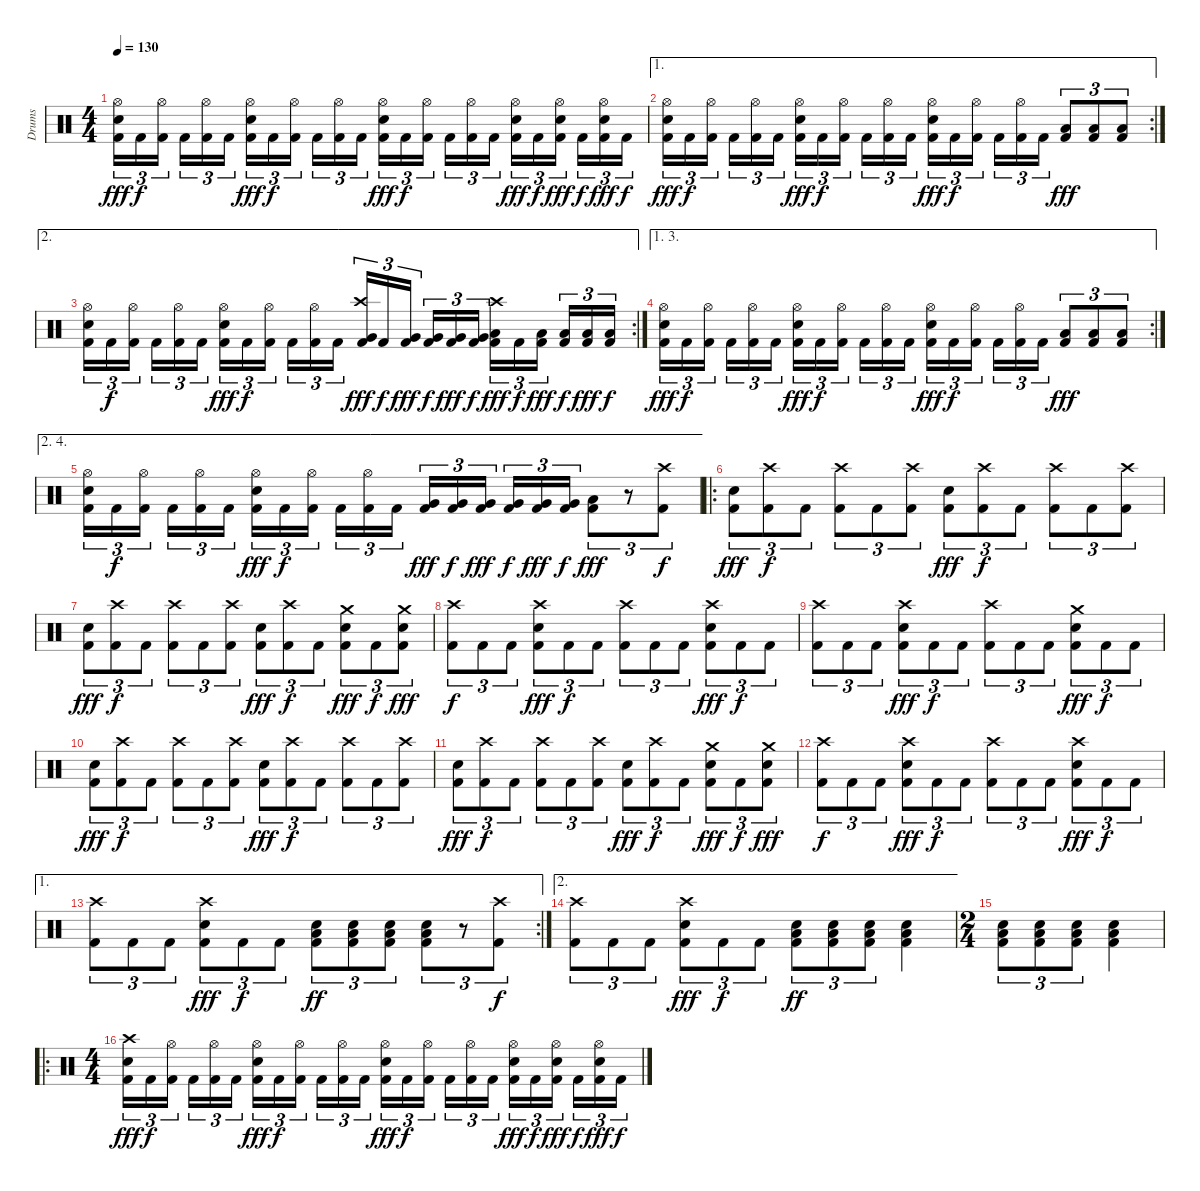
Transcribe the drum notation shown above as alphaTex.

\track ("Drums" "Drums") {instrument percussion}
\staff {score}
\articulation defaults
\ts (4 4)
\tempo 130
\clef neutral
\ks c
("Hi-Hat (open)" "Snare (hit) 2" "Kick (hit) 2").16{tu (3 2) dy fff} "Kick (hit) 2".16{tu (3 2) dy f} ("Hi-Hat (open)" "Kick (hit) 2").16{tu (3 2)} "Kick (hit) 2".16{tu (3 2)} ("Hi-Hat (open)" "Kick (hit) 2").16{tu (3 2)} "Kick (hit) 2".16{tu (3 2)} ("Hi-Hat (open)" "Snare (hit) 2" "Kick (hit) 2").16{tu (3 2) dy fff} "Kick (hit) 2".16{tu (3 2) dy f} ("Hi-Hat (open)" "Kick (hit) 2").16{tu (3 2)} "Kick (hit) 2".16{tu (3 2)} ("Hi-Hat (open)" "Kick (hit) 2").16{tu (3 2)} "Kick (hit) 2".16{tu (3 2)} ("Hi-Hat (open)" "Snare (hit) 2" "Kick (hit) 2").16{tu (3 2) dy fff} "Kick (hit) 2".16{tu (3 2) dy f} ("Hi-Hat (open)" "Kick (hit) 2").16{tu (3 2)} "Kick (hit) 2".16{tu (3 2)} ("Hi-Hat (open)" "Kick (hit) 2").16{tu (3 2)} "Kick (hit) 2".16{tu (3 2)} ("Hi-Hat (open)" "Snare (hit) 2" "Kick (hit) 2").16{tu (3 2) dy fff} "Kick (hit) 2".16{tu (3 2) dy f} ("Hi-Hat (open)" "Snare (hit) 2" "Kick (hit) 2").16{tu (3 2) dy fff} "Kick (hit) 2".16{tu (3 2) dy f} ("Hi-Hat (open)" "Snare (hit) 2" "Kick (hit) 2").16{tu (3 2) dy fff} "Kick (hit) 2".16{tu (3 2) dy f} |
\ae 1
\rc 2
("Hi-Hat (open)" "Snare (hit) 2" "Kick (hit) 2").16{tu (3 2) dy fff} "Kick (hit) 2".16{tu (3 2) dy f} ("Hi-Hat (open)" "Kick (hit) 2").16{tu (3 2)} "Kick (hit) 2".16{tu (3 2)} ("Hi-Hat (open)" "Kick (hit) 2").16{tu (3 2)} "Kick (hit) 2".16{tu (3 2)} ("Hi-Hat (open)" "Snare (hit) 2" "Kick (hit) 2").16{tu (3 2) dy fff} "Kick (hit) 2".16{tu (3 2) dy f} ("Hi-Hat (open)" "Kick (hit) 2").16{tu (3 2)} "Kick (hit) 2".16{tu (3 2)} ("Hi-Hat (open)" "Kick (hit) 2").16{tu (3 2)} "Kick (hit) 2".16{tu (3 2)} ("Hi-Hat (open)" "Snare (hit) 2" "Kick (hit) 2").16{tu (3 2) dy fff} "Kick (hit) 2".16{tu (3 2) dy f} ("Hi-Hat (open)" "Kick (hit) 2").16{tu (3 2)} "Kick (hit) 2".16{tu (3 2)} ("Hi-Hat (open)" "Kick (hit) 2").16{tu (3 2)} "Kick (hit) 2".16{tu (3 2)} ("Low Floor Tom (hit)" "Kick (hit) 2").8{tu (3 2) dy fff} ("Low Floor Tom (hit)" "Kick (hit) 2").8{tu (3 2)} ("Low Floor Tom (hit)" "Kick (hit) 2").8{tu (3 2)} |
\ae 2
\rc 2
("Hi-Hat (open)" "Snare (hit) 2" "Kick (hit) 2").16{tu (3 2)} "Kick (hit) 2".16{tu (3 2) dy f} ("Hi-Hat (open)" "Kick (hit) 2").16{tu (3 2)} "Kick (hit) 2".16{tu (3 2)} ("Hi-Hat (open)" "Kick (hit) 2").16{tu (3 2)} "Kick (hit) 2".16{tu (3 2)} ("Hi-Hat (open)" "Snare (hit) 2" "Kick (hit) 2").16{tu (3 2) dy fff} "Kick (hit) 2".16{tu (3 2) dy f} ("Hi-Hat (open)" "Kick (hit) 2").16{tu (3 2)} "Kick (hit) 2".16{tu (3 2)} ("Hi-Hat (open)" "Kick (hit) 2").16{tu (3 2)} "Kick (hit) 2".16{tu (3 2)} ("Crash high (hit)" "Very Low Tom (hit)" "Kick (hit) 2").16{tu (3 2) dy fff} "Kick (hit) 2".16{tu (3 2) dy f} ("Very Low Tom (hit)" "Kick (hit) 2").16{tu (3 2) dy fff} ("Very Low Tom (hit)" "Kick (hit) 2").16{tu (3 2) dy f} ("Very Low Tom (hit)" "Kick (hit) 2").16{tu (3 2) dy fff} ("Very Low Tom (hit)" "Kick (hit) 2").16{tu (3 2) dy f} ("Crash high (hit)" "Low Floor Tom (hit)" "Kick (hit) 2").16{tu (3 2) dy fff} "Kick (hit) 2".16{tu (3 2) dy f} ("Low Floor Tom (hit)" "Kick (hit) 2").16{tu (3 2) dy fff} ("Low Floor Tom (hit)" "Kick (hit) 2").16{tu (3 2) dy f} ("Low Floor Tom (hit)" "Kick (hit) 2").16{tu (3 2) dy fff} ("Low Floor Tom (hit)" "Kick (hit) 2").16{tu (3 2) dy f} |
\ae (1 3)
\rc 2
("Hi-Hat (open)" "Snare (hit) 2" "Kick (hit) 2").16{tu (3 2) dy fff} "Kick (hit) 2".16{tu (3 2) dy f} ("Hi-Hat (open)" "Kick (hit) 2").16{tu (3 2)} "Kick (hit) 2".16{tu (3 2)} ("Hi-Hat (open)" "Kick (hit) 2").16{tu (3 2)} "Kick (hit) 2".16{tu (3 2)} ("Hi-Hat (open)" "Snare (hit) 2" "Kick (hit) 2").16{tu (3 2) dy fff} "Kick (hit) 2".16{tu (3 2) dy f} ("Hi-Hat (open)" "Kick (hit) 2").16{tu (3 2)} "Kick (hit) 2".16{tu (3 2)} ("Hi-Hat (open)" "Kick (hit) 2").16{tu (3 2)} "Kick (hit) 2".16{tu (3 2)} ("Hi-Hat (open)" "Snare (hit) 2" "Kick (hit) 2").16{tu (3 2) dy fff} "Kick (hit) 2".16{tu (3 2) dy f} ("Hi-Hat (open)" "Kick (hit) 2").16{tu (3 2)} "Kick (hit) 2".16{tu (3 2)} ("Hi-Hat (open)" "Kick (hit) 2").16{tu (3 2)} "Kick (hit) 2".16{tu (3 2)} ("Low Floor Tom (hit)" "Kick (hit) 2").8{tu (3 2) dy fff} ("Low Floor Tom (hit)" "Kick (hit) 2").8{tu (3 2)} ("Low Floor Tom (hit)" "Kick (hit) 2").8{tu (3 2)} |
\ae (2 4)
("Hi-Hat (open)" "Snare (hit) 2" "Kick (hit) 2").16{tu (3 2)} "Kick (hit) 2".16{tu (3 2) dy f} ("Hi-Hat (open)" "Kick (hit) 2").16{tu (3 2)} "Kick (hit) 2".16{tu (3 2)} ("Hi-Hat (open)" "Kick (hit) 2").16{tu (3 2)} "Kick (hit) 2".16{tu (3 2)} ("Hi-Hat (open)" "Snare (hit) 2" "Kick (hit) 2").16{tu (3 2) dy fff} "Kick (hit) 2".16{tu (3 2) dy f} ("Hi-Hat (open)" "Kick (hit) 2").16{tu (3 2)} "Kick (hit) 2".16{tu (3 2)} ("Hi-Hat (open)" "Kick (hit) 2").16{tu (3 2)} "Kick (hit) 2".16{tu (3 2)} ("Very Low Tom (hit)" "Kick (hit) 2").16{tu (3 2) dy fff} ("Very Low Tom (hit)" "Kick (hit) 2").16{tu (3 2) dy f} ("Very Low Tom (hit)" "Kick (hit) 2").16{tu (3 2) dy fff} ("Very Low Tom (hit)" "Kick (hit) 2").16{tu (3 2) dy f} ("Very Low Tom (hit)" "Kick (hit) 2").16{tu (3 2) dy fff} ("Very Low Tom (hit)" "Kick (hit) 2").16{tu (3 2) dy f} ("Low Floor Tom (hit)" "Kick (hit) 2").8{tu (3 2) dy fff} r.8{tu (3 2)} ("Crash high (hit)" "Kick (hit) 2").8{tu (3 2) dy f} |
\ro
("Snare (hit) 2" "Kick (hit) 2").8{tu (3 2) dy fff} ("Crash high (hit)" "Kick (hit) 2").8{tu (3 2) dy f} "Kick (hit) 2".8{tu (3 2)} ("Crash high (hit)" "Kick (hit) 2").8{tu (3 2)} "Kick (hit) 2".8{tu (3 2)} ("Crash high (hit)" "Kick (hit) 2").8{tu (3 2)} ("Snare (hit) 2" "Kick (hit) 2").8{tu (3 2) dy fff} ("Crash high (hit)" "Kick (hit) 2").8{tu (3 2) dy f} "Kick (hit) 2".8{tu (3 2)} ("Crash high (hit)" "Kick (hit) 2").8{tu (3 2)} "Kick (hit) 2".8{tu (3 2)} ("Crash high (hit)" "Kick (hit) 2").8{tu (3 2)} |
("Snare (hit) 2" "Kick (hit) 2").8{tu (3 2) dy fff} ("Crash high (hit)" "Kick (hit) 2").8{tu (3 2) dy f} "Kick (hit) 2".8{tu (3 2)} ("Crash high (hit)" "Kick (hit) 2").8{tu (3 2)} "Kick (hit) 2".8{tu (3 2)} ("Crash high (hit)" "Kick (hit) 2").8{tu (3 2)} ("Snare (hit) 2" "Kick (hit) 2").8{tu (3 2) dy fff} ("Crash high (hit)" "Kick (hit) 2").8{tu (3 2) dy f} "Kick (hit) 2".8{tu (3 2)} ("Crash medium (hit)" "Snare (hit) 2" "Kick (hit) 2").8{tu (3 2) dy fff} "Kick (hit) 2".8{tu (3 2) dy f} ("Crash medium (hit)" "Snare (hit) 2" "Kick (hit) 2").8{tu (3 2) dy fff} |
("Crash high (hit)" "Kick (hit) 2").8{tu (3 2) dy f} "Kick (hit) 2".8{tu (3 2)} "Kick (hit) 2".8{tu (3 2)} ("Crash high (hit)" "Snare (hit) 2" "Kick (hit) 2").8{tu (3 2) dy fff} "Kick (hit) 2".8{tu (3 2) dy f} "Kick (hit) 2".8{tu (3 2)} ("Crash high (hit)" "Kick (hit) 2").8{tu (3 2)} "Kick (hit) 2".8{tu (3 2)} "Kick (hit) 2".8{tu (3 2)} ("Crash high (hit)" "Snare (hit) 2" "Kick (hit) 2").8{tu (3 2) dy fff} "Kick (hit) 2".8{tu (3 2) dy f} "Kick (hit) 2".8{tu (3 2)} |
("Crash high (hit)" "Kick (hit) 2").8{tu (3 2)} "Kick (hit) 2".8{tu (3 2)} "Kick (hit) 2".8{tu (3 2)} ("Crash high (hit)" "Snare (hit) 2" "Kick (hit) 2").8{tu (3 2) dy fff} "Kick (hit) 2".8{tu (3 2) dy f} "Kick (hit) 2".8{tu (3 2)} ("Crash high (hit)" "Kick (hit) 2").8{tu (3 2)} "Kick (hit) 2".8{tu (3 2)} "Kick (hit) 2".8{tu (3 2)} ("Crash medium (hit)" "Snare (hit) 2" "Kick (hit) 2").8{tu (3 2) dy fff} "Kick (hit) 2".8{tu (3 2) dy f} "Kick (hit) 2".8{tu (3 2)} |
("Snare (hit) 2" "Kick (hit) 2").8{tu (3 2) dy fff} ("Crash high (hit)" "Kick (hit) 2").8{tu (3 2) dy f} "Kick (hit) 2".8{tu (3 2)} ("Crash high (hit)" "Kick (hit) 2").8{tu (3 2)} "Kick (hit) 2".8{tu (3 2)} ("Crash high (hit)" "Kick (hit) 2").8{tu (3 2)} ("Snare (hit) 2" "Kick (hit) 2").8{tu (3 2) dy fff} ("Crash high (hit)" "Kick (hit) 2").8{tu (3 2) dy f} "Kick (hit) 2".8{tu (3 2)} ("Crash high (hit)" "Kick (hit) 2").8{tu (3 2)} "Kick (hit) 2".8{tu (3 2)} ("Crash high (hit)" "Kick (hit) 2").8{tu (3 2)} |
("Snare (hit) 2" "Kick (hit) 2").8{tu (3 2) dy fff} ("Crash high (hit)" "Kick (hit) 2").8{tu (3 2) dy f} "Kick (hit) 2".8{tu (3 2)} ("Crash high (hit)" "Kick (hit) 2").8{tu (3 2)} "Kick (hit) 2".8{tu (3 2)} ("Crash high (hit)" "Kick (hit) 2").8{tu (3 2)} ("Snare (hit) 2" "Kick (hit) 2").8{tu (3 2) dy fff} ("Crash high (hit)" "Kick (hit) 2").8{tu (3 2) dy f} "Kick (hit) 2".8{tu (3 2)} ("Crash medium (hit)" "Snare (hit) 2" "Kick (hit) 2").8{tu (3 2) dy fff} "Kick (hit) 2".8{tu (3 2) dy f} ("Crash medium (hit)" "Snare (hit) 2" "Kick (hit) 2").8{tu (3 2) dy fff} |
("Crash high (hit)" "Kick (hit) 2").8{tu (3 2) dy f} "Kick (hit) 2".8{tu (3 2)} "Kick (hit) 2".8{tu (3 2)} ("Crash high (hit)" "Snare (hit) 2" "Kick (hit) 2").8{tu (3 2) dy fff} "Kick (hit) 2".8{tu (3 2) dy f} "Kick (hit) 2".8{tu (3 2)} ("Crash high (hit)" "Kick (hit) 2").8{tu (3 2)} "Kick (hit) 2".8{tu (3 2)} "Kick (hit) 2".8{tu (3 2)} ("Crash high (hit)" "Snare (hit) 2" "Kick (hit) 2").8{tu (3 2) dy fff} "Kick (hit) 2".8{tu (3 2) dy f} "Kick (hit) 2".8{tu (3 2)} |
\ae 1
\rc 2
("Crash high (hit)" "Kick (hit) 2").8{tu (3 2)} "Kick (hit) 2".8{tu (3 2)} "Kick (hit) 2".8{tu (3 2)} ("Crash high (hit)" "Snare (hit) 2" "Kick (hit) 2").8{tu (3 2) dy fff} "Kick (hit) 2".8{tu (3 2) dy f} "Kick (hit) 2".8{tu (3 2)} ("Snare (hit) 2" "Low Floor Tom (hit)" "Kick (hit) 2").8{tu (3 2) dy ff} ("Snare (hit) 2" "Low Floor Tom (hit)" "Kick (hit) 2").8{tu (3 2)} ("Snare (hit) 2" "Low Floor Tom (hit)" "Kick (hit) 2").8{tu (3 2)} ("Snare (hit) 2" "Low Floor Tom (hit)" "Kick (hit) 2").8{tu (3 2)} r.8{tu (3 2)} ("Crash high (hit)" "Kick (hit) 2").8{tu (3 2) dy f} |
\ae 2
("Crash high (hit)" "Kick (hit) 2").8{tu (3 2)} "Kick (hit) 2".8{tu (3 2)} "Kick (hit) 2".8{tu (3 2)} ("Crash high (hit)" "Snare (hit) 2" "Kick (hit) 2").8{tu (3 2) dy fff} "Kick (hit) 2".8{tu (3 2) dy f} "Kick (hit) 2".8{tu (3 2)} ("Snare (hit) 2" "Low Floor Tom (hit)" "Kick (hit) 2").8{tu (3 2) dy ff} ("Snare (hit) 2" "Low Floor Tom (hit)" "Kick (hit) 2").8{tu (3 2)} ("Snare (hit) 2" "Low Floor Tom (hit)" "Kick (hit) 2").8{tu (3 2)} ("Snare (hit) 2" "Low Floor Tom (hit)" "Kick (hit) 2").4 |
\ts (2 4)
("Snare (hit) 2" "Low Floor Tom (hit)" "Kick (hit) 2").8{tu (3 2)} ("Snare (hit) 2" "Low Floor Tom (hit)" "Kick (hit) 2").8{tu (3 2)} ("Snare (hit) 2" "Low Floor Tom (hit)" "Kick (hit) 2").8{tu (3 2)} ("Snare (hit) 2" "Low Floor Tom (hit)" "Kick (hit) 2").4 |
\ro
\ts (4 4)
("Crash high (hit)" "Snare (hit) 2" "Kick (hit) 2").16{tu (3 2) dy fff} "Kick (hit) 2".16{tu (3 2) dy f} ("Hi-Hat (open)" "Kick (hit) 2").16{tu (3 2)} "Kick (hit) 2".16{tu (3 2)} ("Hi-Hat (open)" "Kick (hit) 2").16{tu (3 2)} "Kick (hit) 2".16{tu (3 2)} ("Hi-Hat (open)" "Snare (hit) 2" "Kick (hit) 2").16{tu (3 2) dy fff} "Kick (hit) 2".16{tu (3 2) dy f} ("Hi-Hat (open)" "Kick (hit) 2").16{tu (3 2)} "Kick (hit) 2".16{tu (3 2)} ("Hi-Hat (open)" "Kick (hit) 2").16{tu (3 2)} "Kick (hit) 2".16{tu (3 2)} ("Hi-Hat (open)" "Snare (hit) 2" "Kick (hit) 2").16{tu (3 2) dy fff} "Kick (hit) 2".16{tu (3 2) dy f} ("Hi-Hat (open)" "Kick (hit) 2").16{tu (3 2)} "Kick (hit) 2".16{tu (3 2)} ("Hi-Hat (open)" "Kick (hit) 2").16{tu (3 2)} "Kick (hit) 2".16{tu (3 2)} ("Hi-Hat (open)" "Snare (hit) 2" "Kick (hit) 2").16{tu (3 2) dy fff} "Kick (hit) 2".16{tu (3 2) dy f} ("Hi-Hat (open)" "Snare (hit) 2" "Kick (hit) 2").16{tu (3 2) dy fff} "Kick (hit) 2".16{tu (3 2) dy f} ("Hi-Hat (open)" "Snare (hit) 2" "Kick (hit) 2").16{tu (3 2) dy fff} "Kick (hit) 2".16{tu (3 2) dy f}
